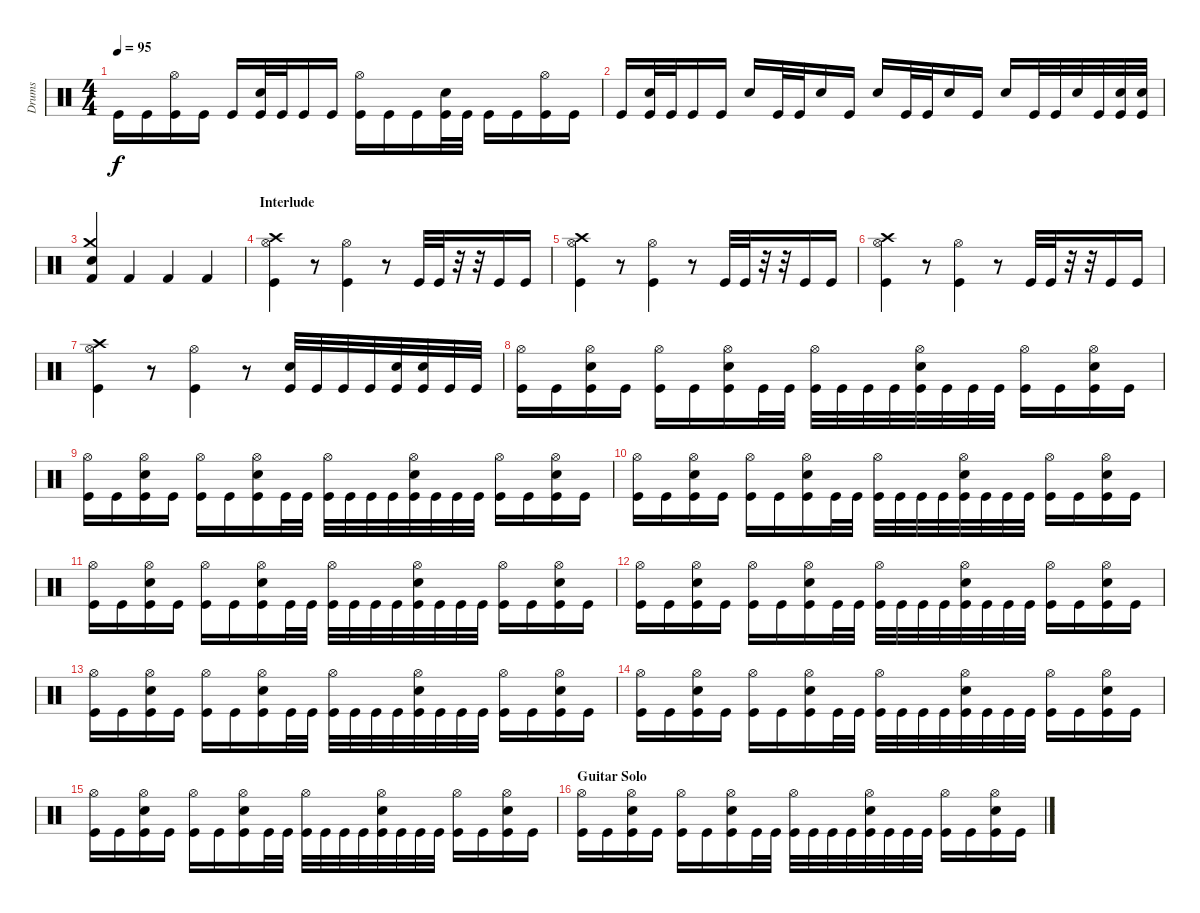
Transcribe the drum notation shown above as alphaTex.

\track ("Drums" "Drums") {instrument percussion}
\staff {score}
\articulation defaults
\ts (4 4)
\tempo 95
\clef neutral
\ks c "Kick (hit)".16{dy f} "Kick (hit)".16
("Hi-Hat (open)" "Kick (hit)").16 "Kick (hit)".16 "Kick (hit)".16 ("Electric Snare (hit)" "Kick (hit)").32 "Kick (hit)".32 "Kick (hit)".16 "Kick (hit)".16 ("Hi-Hat (open)" "Kick (hit)").16 "Kick (hit)".16 "Kick (hit)".16 ("Electric Snare (hit)" "Kick (hit)").32 "Kick (hit)".32 "Kick (hit)".16 "Kick (hit)".16 ("Hi-Hat (open)" "Kick (hit)").16 "Kick (hit)".16 |
"Kick (hit)".16 ("Electric Snare (hit)" "Kick (hit)").32 "Kick (hit)".32 "Kick (hit)".16 "Kick (hit)".16 "Electric Snare (hit)".16 "Kick (hit)".32 "Kick (hit)".32 "Electric Snare (hit)".16 "Kick (hit)".16 "Electric Snare (hit)".16 "Kick (hit)".32 "Kick (hit)".32 "Electric Snare (hit)".16 "Kick (hit)".16 "Electric Snare (hit)".16 "Kick (hit)".32 "Kick (hit)".32 "Electric Snare (hit)".32 "Kick (hit)".32 ("Electric Snare (hit)" "Kick (hit)").32 ("Electric Snare (hit)" "Kick (hit)").32 |
("Electric Snare (hit)" "Crash medium (hit)" "Kick (hit) 2").4 "Kick (hit) 2".4 "Kick (hit) 2".4 "Kick (hit) 2".4 |
\section ("" "Interlude")
("Crash high (hit)" "Hi-Hat (open)" "Kick (hit)").4 r.8 ("Hi-Hat (open)" "Kick (hit)").4 r.8 "Kick (hit)".32 "Kick (hit)".32 r.32 r.32 "Kick (hit)".16 "Kick (hit)".16 |
("Crash high (hit)" "Hi-Hat (open)" "Kick (hit)").4 r.8 ("Hi-Hat (open)" "Kick (hit)").4 r.8 "Kick (hit)".32 "Kick (hit)".32 r.32 r.32 "Kick (hit)".16 "Kick (hit)".16 |
("Crash high (hit)" "Hi-Hat (open)" "Kick (hit)").4 r.8 ("Hi-Hat (open)" "Kick (hit)").4 r.8 "Kick (hit)".32 "Kick (hit)".32 r.32 r.32 "Kick (hit)".16 "Kick (hit)".16 |
("Crash high (hit)" "Hi-Hat (open)" "Kick (hit)").4 r.8 ("Hi-Hat (open)" "Kick (hit)").4 r.8 ("Electric Snare (hit)" "Kick (hit)").32 "Kick (hit)".32 "Kick (hit)".32 "Kick (hit)".32 ("Electric Snare (hit)" "Kick (hit)").32 ("Electric Snare (hit)" "Kick (hit)").32 "Kick (hit)".32 "Kick (hit)".32 |
("Hi-Hat (open)" "Kick (hit)").16 "Kick (hit)".16 ("Hi-Hat (open)" "Electric Snare (hit)" "Kick (hit)").16 "Kick (hit)".16 ("Hi-Hat (open)" "Kick (hit)").16 "Kick (hit)".16 ("Hi-Hat (open)" "Electric Snare (hit)" "Kick (hit)").16 "Kick (hit)".32 "Kick (hit)".32 ("Hi-Hat (open)" "Kick (hit)").32 "Kick (hit)".32 "Kick (hit)".32 "Kick (hit)".32 ("Hi-Hat (open)" "Electric Snare (hit)" "Kick (hit)").32 "Kick (hit)".32 "Kick (hit)".32 "Kick (hit)".32 ("Hi-Hat (open)" "Kick (hit)").16 "Kick (hit)".16 ("Hi-Hat (open)" "Electric Snare (hit)" "Kick (hit)").16 "Kick (hit)".16 |
("Hi-Hat (open)" "Kick (hit)").16 "Kick (hit)".16 ("Hi-Hat (open)" "Electric Snare (hit)" "Kick (hit)").16 "Kick (hit)".16 ("Hi-Hat (open)" "Kick (hit)").16 "Kick (hit)".16 ("Hi-Hat (open)" "Electric Snare (hit)" "Kick (hit)").16 "Kick (hit)".32 "Kick (hit)".32 ("Hi-Hat (open)" "Kick (hit)").32 "Kick (hit)".32 "Kick (hit)".32 "Kick (hit)".32 ("Hi-Hat (open)" "Electric Snare (hit)" "Kick (hit)").32 "Kick (hit)".32 "Kick (hit)".32 "Kick (hit)".32 ("Hi-Hat (open)" "Kick (hit)").16 "Kick (hit)".16 ("Hi-Hat (open)" "Electric Snare (hit)" "Kick (hit)").16 "Kick (hit)".16 |
("Hi-Hat (open)" "Kick (hit)").16 "Kick (hit)".16 ("Hi-Hat (open)" "Electric Snare (hit)" "Kick (hit)").16 "Kick (hit)".16 ("Hi-Hat (open)" "Kick (hit)").16 "Kick (hit)".16 ("Hi-Hat (open)" "Electric Snare (hit)" "Kick (hit)").16 "Kick (hit)".32 "Kick (hit)".32 ("Hi-Hat (open)" "Kick (hit)").32 "Kick (hit)".32 "Kick (hit)".32 "Kick (hit)".32 ("Hi-Hat (open)" "Electric Snare (hit)" "Kick (hit)").32 "Kick (hit)".32 "Kick (hit)".32 "Kick (hit)".32 ("Hi-Hat (open)" "Kick (hit)").16 "Kick (hit)".16 ("Hi-Hat (open)" "Electric Snare (hit)" "Kick (hit)").16 "Kick (hit)".16 |
("Hi-Hat (open)" "Kick (hit)").16 "Kick (hit)".16 ("Hi-Hat (open)" "Electric Snare (hit)" "Kick (hit)").16 "Kick (hit)".16 ("Hi-Hat (open)" "Kick (hit)").16 "Kick (hit)".16 ("Hi-Hat (open)" "Electric Snare (hit)" "Kick (hit)").16 "Kick (hit)".32 "Kick (hit)".32 ("Hi-Hat (open)" "Kick (hit)").32 "Kick (hit)".32 "Kick (hit)".32 "Kick (hit)".32 ("Hi-Hat (open)" "Electric Snare (hit)" "Kick (hit)").32 "Kick (hit)".32 "Kick (hit)".32 "Kick (hit)".32 ("Hi-Hat (open)" "Kick (hit)").16 "Kick (hit)".16 ("Hi-Hat (open)" "Electric Snare (hit)" "Kick (hit)").16 "Kick (hit)".16 |
("Hi-Hat (open)" "Kick (hit)").16 "Kick (hit)".16 ("Hi-Hat (open)" "Electric Snare (hit)" "Kick (hit)").16 "Kick (hit)".16 ("Hi-Hat (open)" "Kick (hit)").16 "Kick (hit)".16 ("Hi-Hat (open)" "Electric Snare (hit)" "Kick (hit)").16 "Kick (hit)".32 "Kick (hit)".32 ("Hi-Hat (open)" "Kick (hit)").32 "Kick (hit)".32 "Kick (hit)".32 "Kick (hit)".32 ("Hi-Hat (open)" "Electric Snare (hit)" "Kick (hit)").32 "Kick (hit)".32 "Kick (hit)".32 "Kick (hit)".32 ("Hi-Hat (open)" "Kick (hit)").16 "Kick (hit)".16 ("Hi-Hat (open)" "Electric Snare (hit)" "Kick (hit)").16 "Kick (hit)".16 |
("Hi-Hat (open)" "Kick (hit)").16 "Kick (hit)".16 ("Hi-Hat (open)" "Electric Snare (hit)" "Kick (hit)").16 "Kick (hit)".16 ("Hi-Hat (open)" "Kick (hit)").16 "Kick (hit)".16 ("Hi-Hat (open)" "Electric Snare (hit)" "Kick (hit)").16 "Kick (hit)".32 "Kick (hit)".32 ("Hi-Hat (open)" "Kick (hit)").32 "Kick (hit)".32 "Kick (hit)".32 "Kick (hit)".32 ("Hi-Hat (open)" "Electric Snare (hit)" "Kick (hit)").32 "Kick (hit)".32 "Kick (hit)".32 "Kick (hit)".32 ("Hi-Hat (open)" "Kick (hit)").16 "Kick (hit)".16 ("Hi-Hat (open)" "Electric Snare (hit)" "Kick (hit)").16 "Kick (hit)".16 |
("Hi-Hat (open)" "Kick (hit)").16 "Kick (hit)".16 ("Hi-Hat (open)" "Electric Snare (hit)" "Kick (hit)").16 "Kick (hit)".16 ("Hi-Hat (open)" "Kick (hit)").16 "Kick (hit)".16 ("Hi-Hat (open)" "Electric Snare (hit)" "Kick (hit)").16 "Kick (hit)".32 "Kick (hit)".32 ("Hi-Hat (open)" "Kick (hit)").32 "Kick (hit)".32 "Kick (hit)".32 "Kick (hit)".32 ("Hi-Hat (open)" "Electric Snare (hit)" "Kick (hit)").32 "Kick (hit)".32 "Kick (hit)".32 "Kick (hit)".32 ("Hi-Hat (open)" "Kick (hit)").16 "Kick (hit)".16 ("Hi-Hat (open)" "Electric Snare (hit)" "Kick (hit)").16 "Kick (hit)".16 |
("Hi-Hat (open)" "Kick (hit)").16 "Kick (hit)".16 ("Hi-Hat (open)" "Electric Snare (hit)" "Kick (hit)").16 "Kick (hit)".16 ("Hi-Hat (open)" "Kick (hit)").16 "Kick (hit)".16 ("Hi-Hat (open)" "Electric Snare (hit)" "Kick (hit)").16 "Kick (hit)".32 "Kick (hit)".32 ("Hi-Hat (open)" "Kick (hit)").32 "Kick (hit)".32 "Kick (hit)".32 "Kick (hit)".32 ("Hi-Hat (open)" "Electric Snare (hit)" "Kick (hit)").32 "Kick (hit)".32 "Kick (hit)".32 "Kick (hit)".32 ("Hi-Hat (open)" "Kick (hit)").16 "Kick (hit)".16 ("Hi-Hat (open)" "Electric Snare (hit)" "Kick (hit)").16 "Kick (hit)".16 |
\section ("" "Guitar Solo")
("Hi-Hat (open)" "Kick (hit)").16 "Kick (hit)".16 ("Hi-Hat (open)" "Electric Snare (hit)" "Kick (hit)").16 "Kick (hit)".16 ("Hi-Hat (open)" "Kick (hit)").16 "Kick (hit)".16 ("Hi-Hat (open)" "Electric Snare (hit)" "Kick (hit)").16 "Kick (hit)".32 "Kick (hit)".32 ("Hi-Hat (open)" "Kick (hit)").32 "Kick (hit)".32 "Kick (hit)".32 "Kick (hit)".32 ("Hi-Hat (open)" "Electric Snare (hit)" "Kick (hit)").32 "Kick (hit)".32 "Kick (hit)".32 "Kick (hit)".32 ("Hi-Hat (open)" "Kick (hit)").16 "Kick (hit)".16 ("Hi-Hat (open)" "Electric Snare (hit)" "Kick (hit)").16 "Kick (hit)".16
